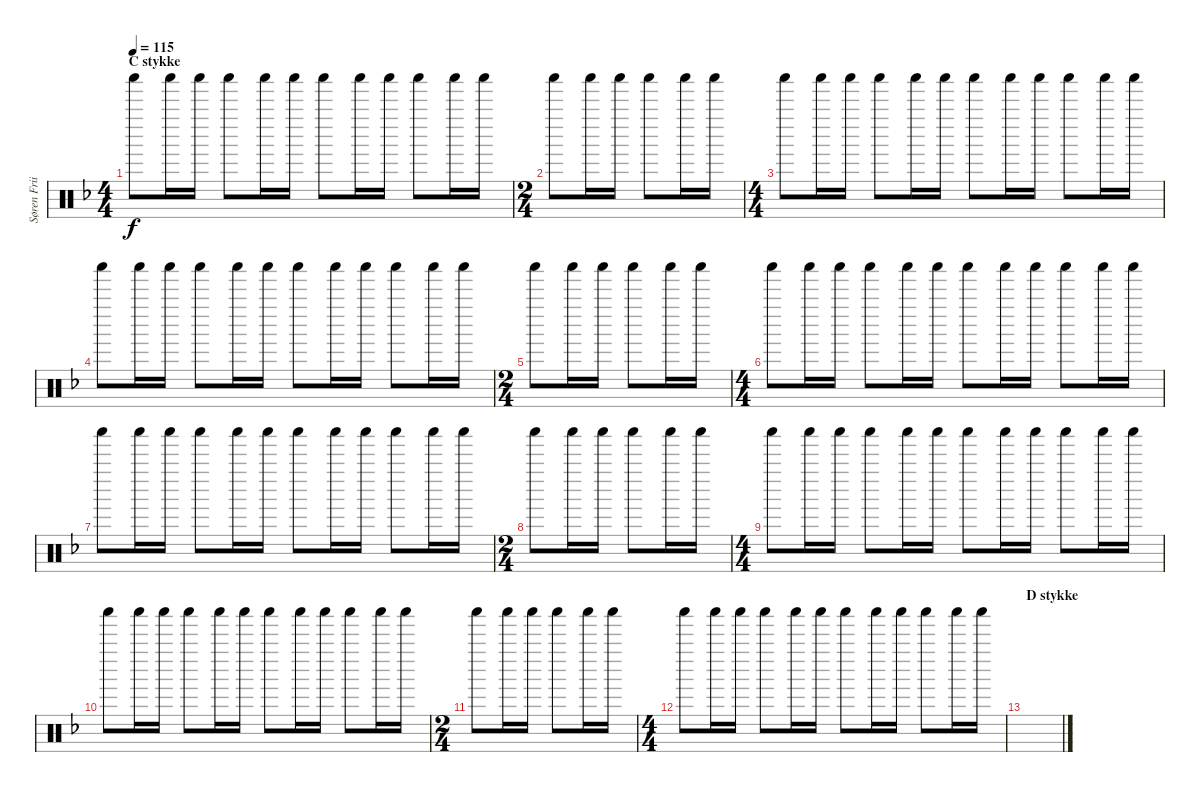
\track ("Søren Friis (Shaker)" "Søren Frii") {instrument percussion}
\staff {score}
\articulation defaults
\ts (4 4)
\section ("" "C stykke")
\tempo 115
\clef neutral
\ks f "Shaker (hit)".8{dy f} "Shaker (hit)".16 "Shaker (hit)".16 "Shaker (hit)".8 "Shaker (hit)".16 "Shaker (hit)".16 "Shaker (hit)".8 "Shaker (hit)".16 "Shaker (hit)".16 "Shaker (hit)".8 "Shaker (hit)".16 "Shaker (hit)".16
|
\ts (2 4)
"Shaker (hit)".8 "Shaker (hit)".16 "Shaker (hit)".16 "Shaker (hit)".8 "Shaker (hit)".16 "Shaker (hit)".16 |
\ts (4 4)
"Shaker (hit)".8 "Shaker (hit)".16 "Shaker (hit)".16 "Shaker (hit)".8 "Shaker (hit)".16 "Shaker (hit)".16 "Shaker (hit)".8 "Shaker (hit)".16 "Shaker (hit)".16 "Shaker (hit)".8 "Shaker (hit)".16 "Shaker (hit)".16 |
"Shaker (hit)".8 "Shaker (hit)".16 "Shaker (hit)".16 "Shaker (hit)".8 "Shaker (hit)".16 "Shaker (hit)".16 "Shaker (hit)".8 "Shaker (hit)".16 "Shaker (hit)".16 "Shaker (hit)".8 "Shaker (hit)".16 "Shaker (hit)".16 |
\ts (2 4)
"Shaker (hit)".8 "Shaker (hit)".16 "Shaker (hit)".16 "Shaker (hit)".8 "Shaker (hit)".16 "Shaker (hit)".16 |
\ts (4 4)
"Shaker (hit)".8 "Shaker (hit)".16 "Shaker (hit)".16 "Shaker (hit)".8 "Shaker (hit)".16 "Shaker (hit)".16 "Shaker (hit)".8 "Shaker (hit)".16 "Shaker (hit)".16 "Shaker (hit)".8 "Shaker (hit)".16 "Shaker (hit)".16 |
"Shaker (hit)".8 "Shaker (hit)".16 "Shaker (hit)".16 "Shaker (hit)".8 "Shaker (hit)".16 "Shaker (hit)".16 "Shaker (hit)".8 "Shaker (hit)".16 "Shaker (hit)".16 "Shaker (hit)".8 "Shaker (hit)".16 "Shaker (hit)".16 |
\ts (2 4)
"Shaker (hit)".8 "Shaker (hit)".16 "Shaker (hit)".16 "Shaker (hit)".8 "Shaker (hit)".16 "Shaker (hit)".16 |
\ts (4 4)
"Shaker (hit)".8 "Shaker (hit)".16 "Shaker (hit)".16 "Shaker (hit)".8 "Shaker (hit)".16 "Shaker (hit)".16 "Shaker (hit)".8 "Shaker (hit)".16 "Shaker (hit)".16 "Shaker (hit)".8 "Shaker (hit)".16 "Shaker (hit)".16 |
"Shaker (hit)".8 "Shaker (hit)".16 "Shaker (hit)".16 "Shaker (hit)".8 "Shaker (hit)".16 "Shaker (hit)".16 "Shaker (hit)".8 "Shaker (hit)".16 "Shaker (hit)".16 "Shaker (hit)".8 "Shaker (hit)".16 "Shaker (hit)".16 |
\ts (2 4)
"Shaker (hit)".8 "Shaker (hit)".16 "Shaker (hit)".16 "Shaker (hit)".8 "Shaker (hit)".16 "Shaker (hit)".16 |
\ts (4 4)
"Shaker (hit)".8 "Shaker (hit)".16 "Shaker (hit)".16 "Shaker (hit)".8 "Shaker (hit)".16 "Shaker (hit)".16 "Shaker (hit)".8 "Shaker (hit)".16 "Shaker (hit)".16 "Shaker (hit)".8 "Shaker (hit)".16 "Shaker (hit)".16 |
\section ("" "D stykke")
